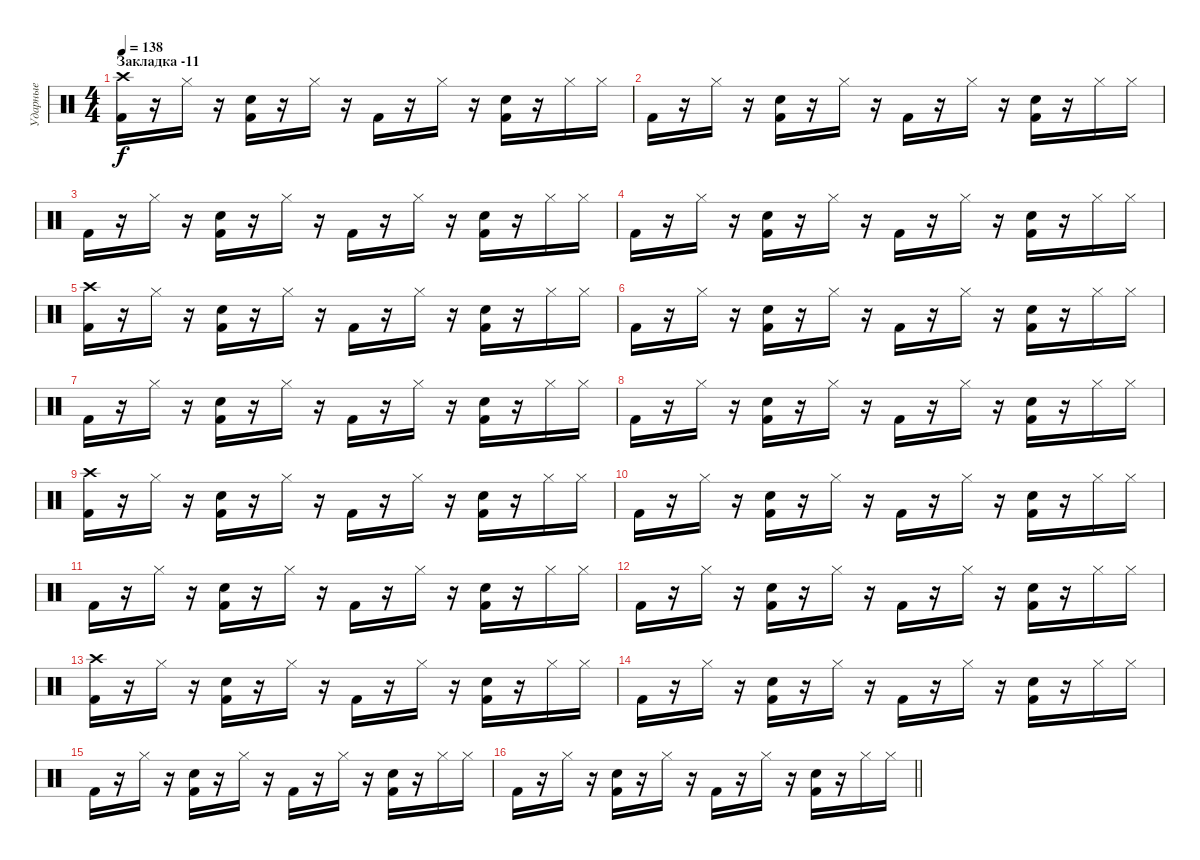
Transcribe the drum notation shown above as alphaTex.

\track ("Ударные" "Ударные") {instrument percussion}
\staff {score}
\articulation defaults
\ts (4 4)
\section ("" "Закладка -11")
\tempo 138
\clef neutral
\ks c
("Crash high (hit)" "Kick (hit) 2").16{dy f} r.16 "Hi-Hat (closed)".16 r.16 ("Electric Snare (hit)" "Kick (hit) 2").16 r.16 "Hi-Hat (closed)".16 r.16 "Kick (hit) 2".16 r.16 "Hi-Hat (closed)".16 r.16 ("Electric Snare (hit)" "Kick (hit) 2").16 r.16 "Hi-Hat (closed)".16 "Hi-Hat (closed)".16 |
"Kick (hit) 2".16 r.16 "Hi-Hat (closed)".16 r.16 ("Electric Snare (hit)" "Kick (hit) 2").16 r.16 "Hi-Hat (closed)".16 r.16 "Kick (hit) 2".16 r.16 "Hi-Hat (closed)".16 r.16 ("Electric Snare (hit)" "Kick (hit) 2").16 r.16 "Hi-Hat (closed)".16 "Hi-Hat (closed)".16 |
"Kick (hit) 2".16 r.16 "Hi-Hat (closed)".16 r.16 ("Electric Snare (hit)" "Kick (hit) 2").16 r.16 "Hi-Hat (closed)".16 r.16 "Kick (hit) 2".16 r.16 "Hi-Hat (closed)".16 r.16 ("Electric Snare (hit)" "Kick (hit) 2").16 r.16 "Hi-Hat (closed)".16 "Hi-Hat (closed)".16 |
"Kick (hit) 2".16 r.16 "Hi-Hat (closed)".16 r.16 ("Electric Snare (hit)" "Kick (hit) 2").16 r.16 "Hi-Hat (closed)".16 r.16 "Kick (hit) 2".16 r.16 "Hi-Hat (closed)".16 r.16 ("Electric Snare (hit)" "Kick (hit) 2").16 r.16 "Hi-Hat (closed)".16 "Hi-Hat (closed)".16 |
("Crash high (hit)" "Kick (hit) 2").16 r.16 "Hi-Hat (closed)".16 r.16 ("Electric Snare (hit)" "Kick (hit) 2").16 r.16 "Hi-Hat (closed)".16 r.16 "Kick (hit) 2".16 r.16 "Hi-Hat (closed)".16 r.16 ("Electric Snare (hit)" "Kick (hit) 2").16 r.16 "Hi-Hat (closed)".16 "Hi-Hat (closed)".16 |
"Kick (hit) 2".16 r.16 "Hi-Hat (closed)".16 r.16 ("Electric Snare (hit)" "Kick (hit) 2").16 r.16 "Hi-Hat (closed)".16 r.16 "Kick (hit) 2".16 r.16 "Hi-Hat (closed)".16 r.16 ("Electric Snare (hit)" "Kick (hit) 2").16 r.16 "Hi-Hat (closed)".16 "Hi-Hat (closed)".16 |
"Kick (hit) 2".16 r.16 "Hi-Hat (closed)".16 r.16 ("Electric Snare (hit)" "Kick (hit) 2").16 r.16 "Hi-Hat (closed)".16 r.16 "Kick (hit) 2".16 r.16 "Hi-Hat (closed)".16 r.16 ("Electric Snare (hit)" "Kick (hit) 2").16 r.16 "Hi-Hat (closed)".16 "Hi-Hat (closed)".16 |
"Kick (hit) 2".16 r.16 "Hi-Hat (closed)".16 r.16 ("Electric Snare (hit)" "Kick (hit) 2").16 r.16 "Hi-Hat (closed)".16 r.16 "Kick (hit) 2".16 r.16 "Hi-Hat (closed)".16 r.16 ("Electric Snare (hit)" "Kick (hit) 2").16 r.16 "Hi-Hat (closed)".16 "Hi-Hat (closed)".16 |
("Crash high (hit)" "Kick (hit) 2").16 r.16 "Hi-Hat (closed)".16 r.16 ("Electric Snare (hit)" "Kick (hit) 2").16 r.16 "Hi-Hat (closed)".16 r.16 "Kick (hit) 2".16 r.16 "Hi-Hat (closed)".16 r.16 ("Electric Snare (hit)" "Kick (hit) 2").16 r.16 "Hi-Hat (closed)".16 "Hi-Hat (closed)".16 |
"Kick (hit) 2".16 r.16 "Hi-Hat (closed)".16 r.16 ("Electric Snare (hit)" "Kick (hit) 2").16 r.16 "Hi-Hat (closed)".16 r.16 "Kick (hit) 2".16 r.16 "Hi-Hat (closed)".16 r.16 ("Electric Snare (hit)" "Kick (hit) 2").16 r.16 "Hi-Hat (closed)".16 "Hi-Hat (closed)".16 |
"Kick (hit) 2".16 r.16 "Hi-Hat (closed)".16 r.16 ("Electric Snare (hit)" "Kick (hit) 2").16 r.16 "Hi-Hat (closed)".16 r.16 "Kick (hit) 2".16 r.16 "Hi-Hat (closed)".16 r.16 ("Electric Snare (hit)" "Kick (hit) 2").16 r.16 "Hi-Hat (closed)".16 "Hi-Hat (closed)".16 |
"Kick (hit) 2".16 r.16 "Hi-Hat (closed)".16 r.16 ("Electric Snare (hit)" "Kick (hit) 2").16 r.16 "Hi-Hat (closed)".16 r.16 "Kick (hit) 2".16 r.16 "Hi-Hat (closed)".16 r.16 ("Electric Snare (hit)" "Kick (hit) 2").16 r.16 "Hi-Hat (closed)".16 "Hi-Hat (closed)".16 |
("Crash high (hit)" "Kick (hit) 2").16 r.16 "Hi-Hat (closed)".16 r.16 ("Electric Snare (hit)" "Kick (hit) 2").16 r.16 "Hi-Hat (closed)".16 r.16 "Kick (hit) 2".16 r.16 "Hi-Hat (closed)".16 r.16 ("Electric Snare (hit)" "Kick (hit) 2").16 r.16 "Hi-Hat (closed)".16 "Hi-Hat (closed)".16 |
"Kick (hit) 2".16 r.16 "Hi-Hat (closed)".16 r.16 ("Electric Snare (hit)" "Kick (hit) 2").16 r.16 "Hi-Hat (closed)".16 r.16 "Kick (hit) 2".16 r.16 "Hi-Hat (closed)".16 r.16 ("Electric Snare (hit)" "Kick (hit) 2").16 r.16 "Hi-Hat (closed)".16 "Hi-Hat (closed)".16 |
"Kick (hit) 2".16 r.16 "Hi-Hat (closed)".16 r.16 ("Electric Snare (hit)" "Kick (hit) 2").16 r.16 "Hi-Hat (closed)".16 r.16 "Kick (hit) 2".16 r.16 "Hi-Hat (closed)".16 r.16 ("Electric Snare (hit)" "Kick (hit) 2").16 r.16 "Hi-Hat (closed)".16 "Hi-Hat (closed)".16 |
\barLineRight lightlight "Kick (hit) 2".16
r.16 "Hi-Hat (closed)".16 r.16 ("Electric Snare (hit)" "Kick (hit) 2").16 r.16 "Hi-Hat (closed)".16 r.16 "Kick (hit) 2".16 r.16 "Hi-Hat (closed)".16 r.16 ("Electric Snare (hit)" "Kick (hit) 2").16 r.16 "Hi-Hat (closed)".16 "Hi-Hat (closed)".16
